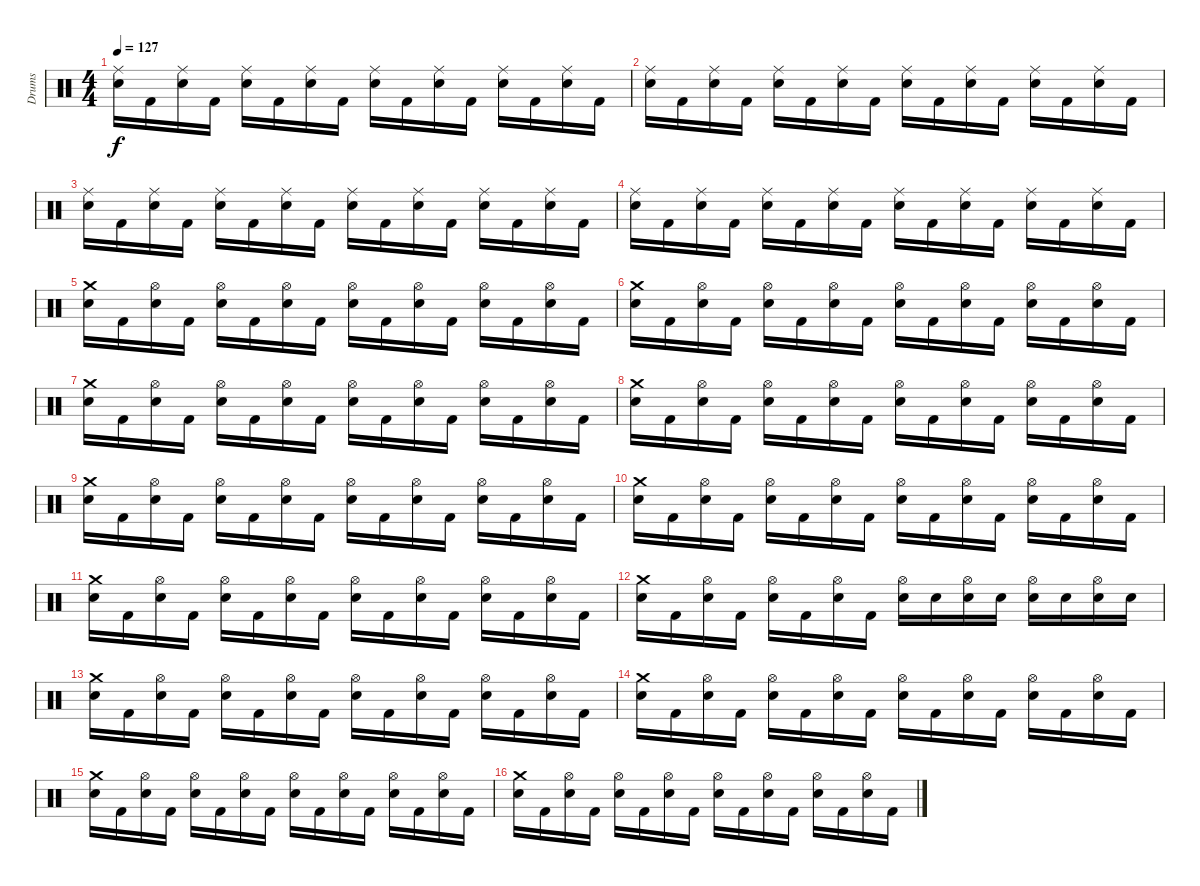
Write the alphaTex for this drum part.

\track ("Drums" "Drums") {instrument percussion}
\staff {score}
\articulation defaults
\ts (4 4)
\tempo 127
\clef neutral
\ks c
("Ride (middle)" "Snare (hit) 2").16{dy f} "Kick (hit) 2".16 ("Ride (middle)" "Snare (hit) 2").16 "Kick (hit) 2".16 ("Ride (middle)" "Snare (hit) 2").16 "Kick (hit) 2".16 ("Ride (middle)" "Snare (hit) 2").16 "Kick (hit) 2".16 ("Ride (middle)" "Snare (hit) 2").16 "Kick (hit) 2".16 ("Ride (middle)" "Snare (hit) 2").16 "Kick (hit) 2".16 ("Ride (middle)" "Snare (hit) 2").16 "Kick (hit) 2".16 ("Ride (middle)" "Snare (hit) 2").16 "Kick (hit) 2".16 |
("Ride (middle)" "Snare (hit) 2").16 "Kick (hit) 2".16 ("Ride (middle)" "Snare (hit) 2").16 "Kick (hit) 2".16 ("Ride (middle)" "Snare (hit) 2").16 "Kick (hit) 2".16 ("Ride (middle)" "Snare (hit) 2").16 "Kick (hit) 2".16 ("Ride (middle)" "Snare (hit) 2").16 "Kick (hit) 2".16 ("Ride (middle)" "Snare (hit) 2").16 "Kick (hit) 2".16 ("Ride (middle)" "Snare (hit) 2").16 "Kick (hit) 2".16 ("Ride (middle)" "Snare (hit) 2").16 "Kick (hit) 2".16 |
("Ride (middle)" "Snare (hit) 2").16 "Kick (hit) 2".16 ("Ride (middle)" "Snare (hit) 2").16 "Kick (hit) 2".16 ("Ride (middle)" "Snare (hit) 2").16 "Kick (hit) 2".16 ("Ride (middle)" "Snare (hit) 2").16 "Kick (hit) 2".16 ("Ride (middle)" "Snare (hit) 2").16 "Kick (hit) 2".16 ("Ride (middle)" "Snare (hit) 2").16 "Kick (hit) 2".16 ("Ride (middle)" "Snare (hit) 2").16 "Kick (hit) 2".16 ("Ride (middle)" "Snare (hit) 2").16 "Kick (hit) 2".16 |
("Ride (middle)" "Snare (hit) 2").16 "Kick (hit) 2".16 ("Ride (middle)" "Snare (hit) 2").16 "Kick (hit) 2".16 ("Ride (middle)" "Snare (hit) 2").16 "Kick (hit) 2".16 ("Ride (middle)" "Snare (hit) 2").16 "Kick (hit) 2".16 ("Ride (middle)" "Snare (hit) 2").16 "Kick (hit) 2".16 ("Ride (middle)" "Snare (hit) 2").16 "Kick (hit) 2".16 ("Ride (middle)" "Snare (hit) 2").16 "Kick (hit) 2".16 ("Ride (middle)" "Snare (hit) 2").16 "Kick (hit) 2".16 |
("Crash medium (hit)" "Snare (hit) 2").16 "Kick (hit) 2".16 ("Hi-Hat (open)" "Snare (hit) 2").16 "Kick (hit) 2".16 ("Hi-Hat (open)" "Snare (hit) 2").16 "Kick (hit) 2".16 ("Hi-Hat (open)" "Snare (hit) 2").16 "Kick (hit) 2".16 ("Hi-Hat (open)" "Snare (hit) 2").16 "Kick (hit) 2".16 ("Hi-Hat (open)" "Snare (hit) 2").16 "Kick (hit) 2".16 ("Hi-Hat (open)" "Snare (hit) 2").16 "Kick (hit) 2".16 ("Hi-Hat (open)" "Snare (hit) 2").16 "Kick (hit) 2".16 |
("Crash medium (hit)" "Snare (hit) 2").16 "Kick (hit) 2".16 ("Hi-Hat (open)" "Snare (hit) 2").16 "Kick (hit) 2".16 ("Hi-Hat (open)" "Snare (hit) 2").16 "Kick (hit) 2".16 ("Hi-Hat (open)" "Snare (hit) 2").16 "Kick (hit) 2".16 ("Hi-Hat (open)" "Snare (hit) 2").16 "Kick (hit) 2".16 ("Hi-Hat (open)" "Snare (hit) 2").16 "Kick (hit) 2".16 ("Hi-Hat (open)" "Snare (hit) 2").16 "Kick (hit) 2".16 ("Hi-Hat (open)" "Snare (hit) 2").16 "Kick (hit) 2".16 |
("Crash medium (hit)" "Snare (hit) 2").16 "Kick (hit) 2".16 ("Hi-Hat (open)" "Snare (hit) 2").16 "Kick (hit) 2".16 ("Hi-Hat (open)" "Snare (hit) 2").16 "Kick (hit) 2".16 ("Hi-Hat (open)" "Snare (hit) 2").16 "Kick (hit) 2".16 ("Hi-Hat (open)" "Snare (hit) 2").16 "Kick (hit) 2".16 ("Hi-Hat (open)" "Snare (hit) 2").16 "Kick (hit) 2".16 ("Hi-Hat (open)" "Snare (hit) 2").16 "Kick (hit) 2".16 ("Hi-Hat (open)" "Snare (hit) 2").16 "Kick (hit) 2".16 |
("Crash medium (hit)" "Snare (hit) 2").16 "Kick (hit) 2".16 ("Hi-Hat (open)" "Snare (hit) 2").16 "Kick (hit) 2".16 ("Hi-Hat (open)" "Snare (hit) 2").16 "Kick (hit) 2".16 ("Hi-Hat (open)" "Snare (hit) 2").16 "Kick (hit) 2".16 ("Hi-Hat (open)" "Snare (hit) 2").16 "Kick (hit) 2".16 ("Hi-Hat (open)" "Snare (hit) 2").16 "Kick (hit) 2".16 ("Hi-Hat (open)" "Snare (hit) 2").16 "Kick (hit) 2".16 ("Hi-Hat (open)" "Snare (hit) 2").16 "Kick (hit) 2".16 |
("Crash medium (hit)" "Snare (hit) 2").16 "Kick (hit) 2".16 ("Hi-Hat (open)" "Snare (hit) 2").16 "Kick (hit) 2".16 ("Hi-Hat (open)" "Snare (hit) 2").16 "Kick (hit) 2".16 ("Hi-Hat (open)" "Snare (hit) 2").16 "Kick (hit) 2".16 ("Hi-Hat (open)" "Snare (hit) 2").16 "Kick (hit) 2".16 ("Hi-Hat (open)" "Snare (hit) 2").16 "Kick (hit) 2".16 ("Hi-Hat (open)" "Snare (hit) 2").16 "Kick (hit) 2".16 ("Hi-Hat (open)" "Snare (hit) 2").16 "Kick (hit) 2".16 |
("Crash medium (hit)" "Snare (hit) 2").16 "Kick (hit) 2".16 ("Hi-Hat (open)" "Snare (hit) 2").16 "Kick (hit) 2".16 ("Hi-Hat (open)" "Snare (hit) 2").16 "Kick (hit) 2".16 ("Hi-Hat (open)" "Snare (hit) 2").16 "Kick (hit) 2".16 ("Hi-Hat (open)" "Snare (hit) 2").16 "Kick (hit) 2".16 ("Hi-Hat (open)" "Snare (hit) 2").16 "Kick (hit) 2".16 ("Hi-Hat (open)" "Snare (hit) 2").16 "Kick (hit) 2".16 ("Hi-Hat (open)" "Snare (hit) 2").16 "Kick (hit) 2".16 |
("Crash medium (hit)" "Snare (hit) 2").16 "Kick (hit) 2".16 ("Hi-Hat (open)" "Snare (hit) 2").16 "Kick (hit) 2".16 ("Hi-Hat (open)" "Snare (hit) 2").16 "Kick (hit) 2".16 ("Hi-Hat (open)" "Snare (hit) 2").16 "Kick (hit) 2".16 ("Hi-Hat (open)" "Snare (hit) 2").16 "Kick (hit) 2".16 ("Hi-Hat (open)" "Snare (hit) 2").16 "Kick (hit) 2".16 ("Hi-Hat (open)" "Snare (hit) 2").16 "Kick (hit) 2".16 ("Hi-Hat (open)" "Snare (hit) 2").16 "Kick (hit) 2".16 |
("Crash medium (hit)" "Snare (hit) 2").16 "Kick (hit) 2".16 ("Hi-Hat (open)" "Snare (hit) 2").16 "Kick (hit) 2".16 ("Hi-Hat (open)" "Snare (hit) 2").16 "Kick (hit) 2".16 ("Hi-Hat (open)" "Snare (hit) 2").16 "Kick (hit) 2".16 ("Hi-Hat (open)" "Snare (hit) 2").16 "Snare (hit) 2".16 ("Hi-Hat (open)" "Snare (hit) 2").16 "Snare (hit) 2".16 ("Hi-Hat (open)" "Snare (hit) 2").16 "Snare (hit) 2".16 ("Hi-Hat (open)" "Snare (hit) 2").16 "Snare (hit) 2".16 |
("Crash medium (hit)" "Snare (hit) 2").16 "Kick (hit) 2".16 ("Hi-Hat (open)" "Snare (hit) 2").16 "Kick (hit) 2".16 ("Hi-Hat (open)" "Snare (hit) 2").16 "Kick (hit) 2".16 ("Hi-Hat (open)" "Snare (hit) 2").16 "Kick (hit) 2".16 ("Hi-Hat (open)" "Snare (hit) 2").16 "Kick (hit) 2".16 ("Hi-Hat (open)" "Snare (hit) 2").16 "Kick (hit) 2".16 ("Hi-Hat (open)" "Snare (hit) 2").16 "Kick (hit) 2".16 ("Hi-Hat (open)" "Snare (hit) 2").16 "Kick (hit) 2".16 |
("Crash medium (hit)" "Snare (hit) 2").16 "Kick (hit) 2".16 ("Hi-Hat (open)" "Snare (hit) 2").16 "Kick (hit) 2".16 ("Hi-Hat (open)" "Snare (hit) 2").16 "Kick (hit) 2".16 ("Hi-Hat (open)" "Snare (hit) 2").16 "Kick (hit) 2".16 ("Hi-Hat (open)" "Snare (hit) 2").16 "Kick (hit) 2".16 ("Hi-Hat (open)" "Snare (hit) 2").16 "Kick (hit) 2".16 ("Hi-Hat (open)" "Snare (hit) 2").16 "Kick (hit) 2".16 ("Hi-Hat (open)" "Snare (hit) 2").16 "Kick (hit) 2".16 |
("Crash medium (hit)" "Snare (hit) 2").16 "Kick (hit) 2".16 ("Hi-Hat (open)" "Snare (hit) 2").16 "Kick (hit) 2".16 ("Hi-Hat (open)" "Snare (hit) 2").16 "Kick (hit) 2".16 ("Hi-Hat (open)" "Snare (hit) 2").16 "Kick (hit) 2".16 ("Hi-Hat (open)" "Snare (hit) 2").16 "Kick (hit) 2".16 ("Hi-Hat (open)" "Snare (hit) 2").16 "Kick (hit) 2".16 ("Hi-Hat (open)" "Snare (hit) 2").16 "Kick (hit) 2".16 ("Hi-Hat (open)" "Snare (hit) 2").16 "Kick (hit) 2".16 |
("Crash medium (hit)" "Snare (hit) 2").16 "Kick (hit) 2".16 ("Hi-Hat (open)" "Snare (hit) 2").16 "Kick (hit) 2".16 ("Hi-Hat (open)" "Snare (hit) 2").16 "Kick (hit) 2".16 ("Hi-Hat (open)" "Snare (hit) 2").16 "Kick (hit) 2".16 ("Hi-Hat (open)" "Snare (hit) 2").16 "Kick (hit) 2".16 ("Hi-Hat (open)" "Snare (hit) 2").16 "Kick (hit) 2".16 ("Hi-Hat (open)" "Snare (hit) 2").16 "Kick (hit) 2".16 ("Hi-Hat (open)" "Snare (hit) 2").16 "Kick (hit) 2".16
